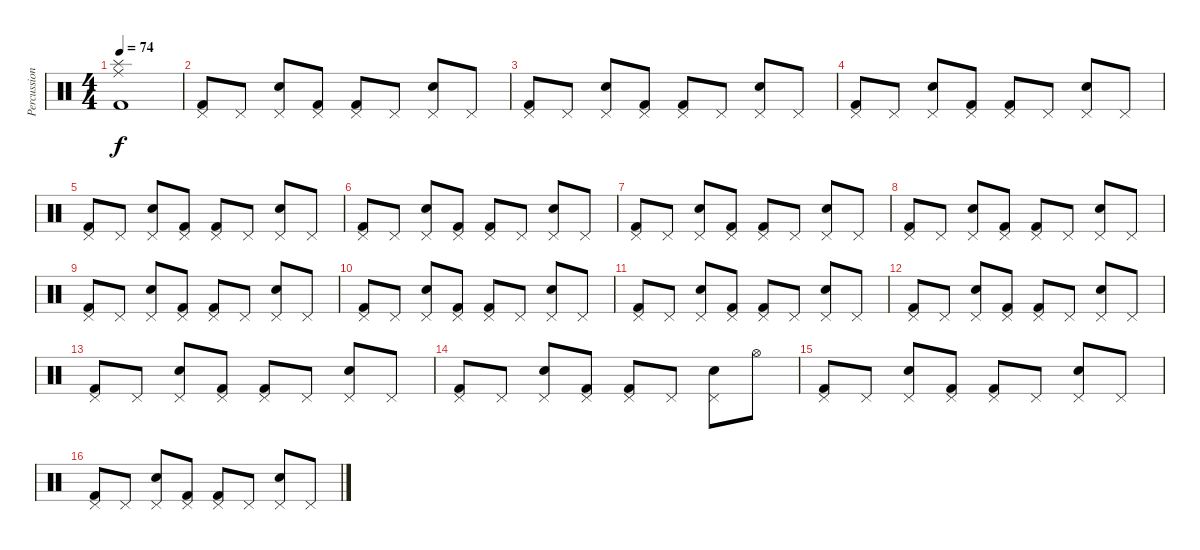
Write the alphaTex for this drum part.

\track ("Percussion" "Percussion") {instrument percussion}
\staff {score}
\articulation defaults
\ts (4 4)
\tempo 74
\clef neutral
\ks c
("Splash (hit)" "Ride (middle)" "Kick (hit) 2").1{dy f} |
("Pedal Hi-Hat (hit)" "Kick (hit) 2").8 "Pedal Hi-Hat (hit)".8 ("Pedal Hi-Hat (hit)" "Snare (hit) 2").8 ("Pedal Hi-Hat (hit)" "Kick (hit) 2").8 ("Pedal Hi-Hat (hit)" "Kick (hit) 2").8 "Pedal Hi-Hat (hit)".8 ("Pedal Hi-Hat (hit)" "Snare (hit) 2").8 "Pedal Hi-Hat (hit)".8 |
("Pedal Hi-Hat (hit)" "Kick (hit) 2").8 "Pedal Hi-Hat (hit)".8 ("Pedal Hi-Hat (hit)" "Snare (hit) 2").8 ("Pedal Hi-Hat (hit)" "Kick (hit) 2").8 ("Pedal Hi-Hat (hit)" "Kick (hit) 2").8 "Pedal Hi-Hat (hit)".8 ("Pedal Hi-Hat (hit)" "Snare (hit) 2").8 "Pedal Hi-Hat (hit)".8 |
("Pedal Hi-Hat (hit)" "Kick (hit) 2").8 "Pedal Hi-Hat (hit)".8 ("Pedal Hi-Hat (hit)" "Snare (hit) 2").8 ("Pedal Hi-Hat (hit)" "Kick (hit) 2").8 ("Pedal Hi-Hat (hit)" "Kick (hit) 2").8 "Pedal Hi-Hat (hit)".8 ("Pedal Hi-Hat (hit)" "Snare (hit) 2").8 "Pedal Hi-Hat (hit)".8 |
("Pedal Hi-Hat (hit)" "Kick (hit) 2").8 "Pedal Hi-Hat (hit)".8 ("Pedal Hi-Hat (hit)" "Snare (hit) 2").8 ("Pedal Hi-Hat (hit)" "Kick (hit) 2").8 ("Pedal Hi-Hat (hit)" "Kick (hit) 2").8 "Pedal Hi-Hat (hit)".8 ("Pedal Hi-Hat (hit)" "Snare (hit) 2").8 "Pedal Hi-Hat (hit)".8 |
("Pedal Hi-Hat (hit)" "Kick (hit) 2").8 "Pedal Hi-Hat (hit)".8 ("Pedal Hi-Hat (hit)" "Snare (hit) 2").8 ("Pedal Hi-Hat (hit)" "Kick (hit) 2").8 ("Pedal Hi-Hat (hit)" "Kick (hit) 2").8 "Pedal Hi-Hat (hit)".8 ("Pedal Hi-Hat (hit)" "Snare (hit) 2").8 "Pedal Hi-Hat (hit)".8 |
("Pedal Hi-Hat (hit)" "Kick (hit) 2").8 "Pedal Hi-Hat (hit)".8 ("Pedal Hi-Hat (hit)" "Snare (hit) 2").8 ("Pedal Hi-Hat (hit)" "Kick (hit) 2").8 ("Pedal Hi-Hat (hit)" "Kick (hit) 2").8 "Pedal Hi-Hat (hit)".8 ("Pedal Hi-Hat (hit)" "Snare (hit) 2").8 "Pedal Hi-Hat (hit)".8 |
("Pedal Hi-Hat (hit)" "Kick (hit) 2").8 "Pedal Hi-Hat (hit)".8 ("Pedal Hi-Hat (hit)" "Snare (hit) 2").8 ("Pedal Hi-Hat (hit)" "Kick (hit) 2").8 ("Pedal Hi-Hat (hit)" "Kick (hit) 2").8 "Pedal Hi-Hat (hit)".8 ("Pedal Hi-Hat (hit)" "Snare (hit) 2").8 "Pedal Hi-Hat (hit)".8 |
("Pedal Hi-Hat (hit)" "Kick (hit) 2").8 "Pedal Hi-Hat (hit)".8 ("Pedal Hi-Hat (hit)" "Snare (hit) 2").8 ("Pedal Hi-Hat (hit)" "Kick (hit) 2").8 ("Pedal Hi-Hat (hit)" "Kick (hit) 2").8 "Pedal Hi-Hat (hit)".8 ("Pedal Hi-Hat (hit)" "Snare (hit) 2").8 "Pedal Hi-Hat (hit)".8 |
("Pedal Hi-Hat (hit)" "Kick (hit) 2").8 "Pedal Hi-Hat (hit)".8 ("Pedal Hi-Hat (hit)" "Snare (hit) 2").8 ("Pedal Hi-Hat (hit)" "Kick (hit) 2").8 ("Pedal Hi-Hat (hit)" "Kick (hit) 2").8 "Pedal Hi-Hat (hit)".8 ("Pedal Hi-Hat (hit)" "Snare (hit) 2").8 "Pedal Hi-Hat (hit)".8 |
("Pedal Hi-Hat (hit)" "Kick (hit) 2").8 "Pedal Hi-Hat (hit)".8 ("Pedal Hi-Hat (hit)" "Snare (hit) 2").8 ("Pedal Hi-Hat (hit)" "Kick (hit) 2").8 ("Pedal Hi-Hat (hit)" "Kick (hit) 2").8 "Pedal Hi-Hat (hit)".8 ("Pedal Hi-Hat (hit)" "Snare (hit) 2").8 "Pedal Hi-Hat (hit)".8 |
("Pedal Hi-Hat (hit)" "Kick (hit) 2").8 "Pedal Hi-Hat (hit)".8 ("Pedal Hi-Hat (hit)" "Snare (hit) 2").8 ("Pedal Hi-Hat (hit)" "Kick (hit) 2").8 ("Pedal Hi-Hat (hit)" "Kick (hit) 2").8 "Pedal Hi-Hat (hit)".8 ("Pedal Hi-Hat (hit)" "Snare (hit) 2").8 "Pedal Hi-Hat (hit)".8 |
("Pedal Hi-Hat (hit)" "Kick (hit) 2").8 "Pedal Hi-Hat (hit)".8 ("Pedal Hi-Hat (hit)" "Snare (hit) 2").8 ("Pedal Hi-Hat (hit)" "Kick (hit) 2").8 ("Pedal Hi-Hat (hit)" "Kick (hit) 2").8 "Pedal Hi-Hat (hit)".8 ("Pedal Hi-Hat (hit)" "Snare (hit) 2").8 "Pedal Hi-Hat (hit)".8 |
("Pedal Hi-Hat (hit)" "Kick (hit) 2").8 "Pedal Hi-Hat (hit)".8 ("Pedal Hi-Hat (hit)" "Snare (hit) 2").8 ("Pedal Hi-Hat (hit)" "Kick (hit) 2").8 ("Pedal Hi-Hat (hit)" "Kick (hit) 2").8 "Pedal Hi-Hat (hit)".8 ("Pedal Hi-Hat (hit)" "Snare (hit) 2").8 "Hi-Hat (open)".8 |
("Pedal Hi-Hat (hit)" "Kick (hit) 2").8 "Pedal Hi-Hat (hit)".8 ("Pedal Hi-Hat (hit)" "Snare (hit) 2").8 ("Pedal Hi-Hat (hit)" "Kick (hit) 2").8 ("Pedal Hi-Hat (hit)" "Kick (hit) 2").8 "Pedal Hi-Hat (hit)".8 ("Pedal Hi-Hat (hit)" "Snare (hit) 2").8 "Pedal Hi-Hat (hit)".8 |
("Pedal Hi-Hat (hit)" "Kick (hit) 2").8 "Pedal Hi-Hat (hit)".8 ("Pedal Hi-Hat (hit)" "Snare (hit) 2").8 ("Pedal Hi-Hat (hit)" "Kick (hit) 2").8 ("Pedal Hi-Hat (hit)" "Kick (hit) 2").8 "Pedal Hi-Hat (hit)".8 ("Pedal Hi-Hat (hit)" "Snare (hit) 2").8 "Pedal Hi-Hat (hit)".8
